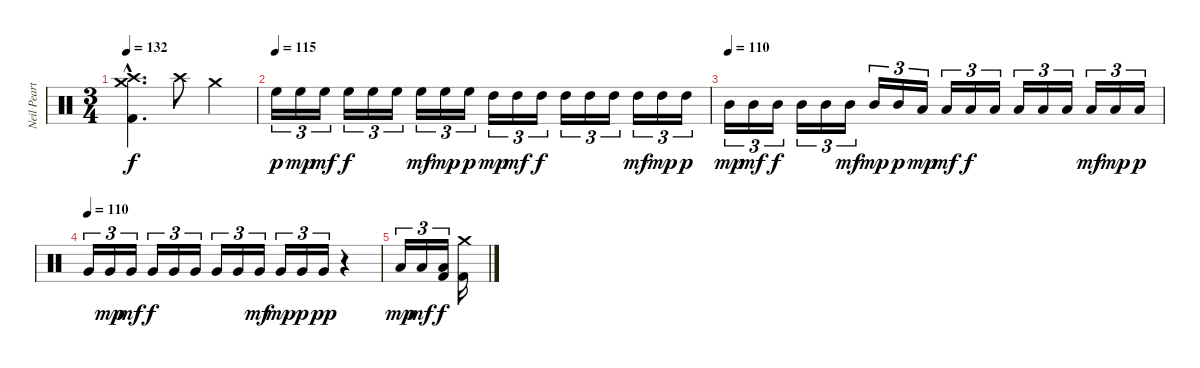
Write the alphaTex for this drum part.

\track ("Neil Peart" "Neil Peart") {instrument percussion}
\staff {score}
\articulation defaults
\ts (3 4)
\tempo 132
\clef neutral
\ks c
("Crash high (hit)"{hac} "Crash medium (hit)"{hac} "Kick (hit) 2"{hac}).4{d dy f} "Crash high (hit)".8 "Crash medium (hit)".4 |
\tempo (115)
"High Floor Tom (hit)".16{tu (3 2) dy p} "High Floor Tom (hit)".16{tu (3 2) dy mp} "High Floor Tom (hit)".16{tu (3 2) dy mf} "High Floor Tom (hit)".16{tu (3 2) dy f} "High Floor Tom (hit)".16{tu (3 2)} "High Floor Tom (hit)".16{tu (3 2)} "High Floor Tom (hit)".16{tu (3 2) dy mf} "High Floor Tom (hit)".16{tu (3 2) dy mp} "High Floor Tom (hit)".16{tu (3 2) dy p} "High Tom (hit)".16{tu (3 2) dy mp} "High Tom (hit)".16{tu (3 2) dy mf} "High Tom (hit)".16{tu (3 2) dy f} "High Tom (hit)".16{tu (3 2)} "High Tom (hit)".16{tu (3 2)} "High Tom (hit)".16{tu (3 2)} "High Tom (hit)".16{tu (3 2) dy mf} "High Tom (hit)".16{tu (3 2) dy mp} "High Tom (hit)".16{tu (3 2) dy p} |
\tempo (110)
"Mid Tom (hit)".16{tu (3 2) dy mp} "Mid Tom (hit)".16{tu (3 2) dy mf} "Mid Tom (hit)".16{tu (3 2) dy f} "Mid Tom (hit)".16{tu (3 2)} "Mid Tom (hit)".16{tu (3 2)} "Mid Tom (hit)".16{tu (3 2) dy mf} "Mid Tom (hit)".16{tu (3 2) dy mp} "Mid Tom (hit)".16{tu (3 2) dy p} "Low Tom (hit)".16{tu (3 2) dy mp} "Low Tom (hit)".16{tu (3 2) dy mf} "Low Tom (hit)".16{tu (3 2) dy f} "Low Tom (hit)".16{tu (3 2)} "Low Tom (hit)".16{tu (3 2)} "Low Tom (hit)".16{tu (3 2)} "Low Tom (hit)".16{tu (3 2)} "Low Tom (hit)".16{tu (3 2) dy mf} "Low Tom (hit)".16{tu (3 2) dy mp} "Low Tom (hit)".16{tu (3 2) dy p} |
\tempo (110)
"Very Low Tom (hit)".16{tu (3 2)} "Very Low Tom (hit)".16{tu (3 2) dy mp} "Very Low Tom (hit)".16{tu (3 2) dy mf} "Very Low Tom (hit)".16{tu (3 2) dy f} "Very Low Tom (hit)".16{tu (3 2)} "Very Low Tom (hit)".16{tu (3 2)} "Very Low Tom (hit)".16{tu (3 2)} "Very Low Tom (hit)".16{tu (3 2)} "Very Low Tom (hit)".16{tu (3 2) dy mf} "Very Low Tom (hit)".16{tu (3 2) dy mp} "Very Low Tom (hit)".16{tu (3 2) dy p} "Very Low Tom (hit)".16{tu (3 2) dy pp} r.4 |
"Low Floor Tom (hit)".16{tu (3 2) dy mp} "Low Floor Tom (hit)".16{tu (3 2) dy mf} ("Low Floor Tom (hit)" "Kick (hit) 2").16{tu (3 2) dy f} ("Crash medium (hit)" "Kick (hit) 2").16
